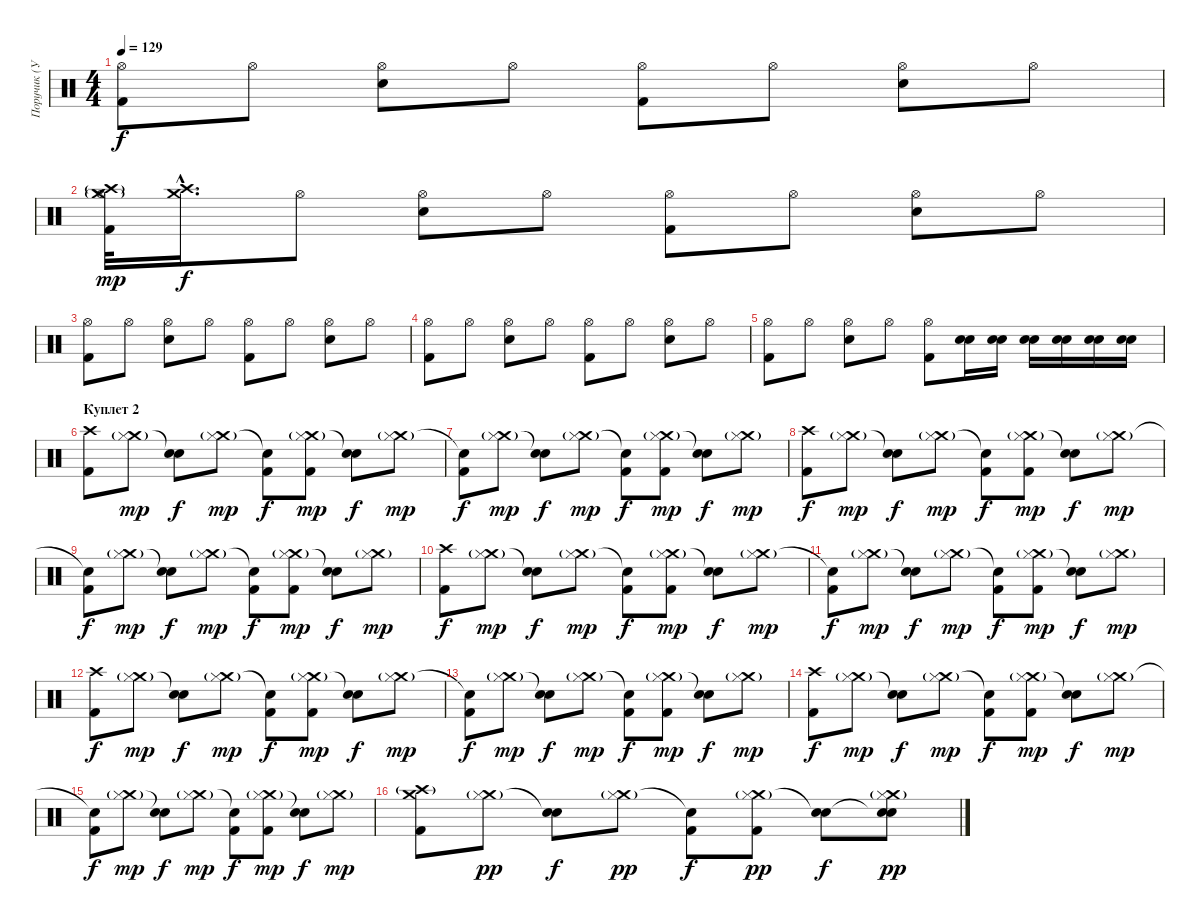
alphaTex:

\track ("Поручик (Ударные)" "Поручик (У") {instrument percussion}
\staff {score}
\articulation defaults
\ts (4 4)
\tempo 129
\clef neutral
\ks c
("Hi-Hat (open)" "Kick (hit) 2").8{dy f} "Hi-Hat (open)".8 ("Hi-Hat (open)" "Snare (hit) 2").8 "Hi-Hat (open)".8 ("Hi-Hat (open)" "Kick (hit) 2").8 "Hi-Hat (open)".8 ("Hi-Hat (open)" "Snare (hit) 2").8 "Hi-Hat (open)".8 |
("Hi-Hat (open)" "Kick (hit) 2" "Crash medium (hit)"{g} "Crash high (hit)"{g}).32{dy mp} ("Crash medium (hit)"{hac} "Crash high (hit)"{hac}).16{d dy f} "Hi-Hat (open)".8 ("Hi-Hat (open)" "Snare (hit) 2").8 "Hi-Hat (open)".8 ("Hi-Hat (open)" "Kick (hit) 2").8 "Hi-Hat (open)".8 ("Hi-Hat (open)" "Snare (hit) 2").8 "Hi-Hat (open)".8 |
("Hi-Hat (open)" "Kick (hit) 2").8 "Hi-Hat (open)".8 ("Hi-Hat (open)" "Snare (hit) 2").8 "Hi-Hat (open)".8 ("Hi-Hat (open)" "Kick (hit) 2").8 "Hi-Hat (open)".8 ("Hi-Hat (open)" "Snare (hit) 2").8 "Hi-Hat (open)".8 |
("Hi-Hat (open)" "Kick (hit) 2").8 "Hi-Hat (open)".8 ("Hi-Hat (open)" "Snare (hit) 2").8 "Hi-Hat (open)".8 ("Hi-Hat (open)" "Kick (hit) 2").8 "Hi-Hat (open)".8 ("Hi-Hat (open)" "Snare (hit) 2").8 "Hi-Hat (open)".8 |
("Hi-Hat (open)" "Kick (hit) 2").8 "Hi-Hat (open)".8 ("Hi-Hat (open)" "Snare (hit) 2").8 "Hi-Hat (open)".8 ("Hi-Hat (open)" "Kick (hit) 2").8 ("Electric Snare (hit)" "Snare (hit) 2").16 ("Electric Snare (hit)" "Snare (hit) 2").16 ("Electric Snare (hit)" "Snare (hit) 2").16 ("Electric Snare (hit)" "Snare (hit) 2").16 ("Electric Snare (hit)" "Snare (hit) 2").16 ("Electric Snare (hit)" "Snare (hit) 2").16 |
\section ("" "Куплет 2")
("Kick (hit) 2" "Crash high (hit)").8 ("Crash medium (hit)"{g} "Hi-Hat (closed)").8{dy mp} ("Snare (hit) 2" "Snare (hit)"{t}).8{dy f} ("Crash medium (hit)"{g} "Hi-Hat (closed)").8{dy mp} ("Kick (hit) 2" "Snare (hit)"{t}).8{dy f} ("Kick (hit) 2" "Crash medium (hit)"{g} "Hi-Hat (closed)").8{dy mp} ("Snare (hit) 2" "Snare (hit)"{t}).8{dy f} ("Crash medium (hit)"{g} "Hi-Hat (closed)").8{dy mp} |
("Kick (hit) 2" "Snare (hit)"{t}).8{dy f} ("Crash medium (hit)"{g} "Hi-Hat (closed)").8{dy mp} ("Snare (hit) 2" "Snare (hit)"{t}).8{dy f} ("Crash medium (hit)"{g} "Hi-Hat (closed)").8{dy mp} ("Kick (hit) 2" "Snare (hit)"{t}).8{dy f} ("Kick (hit) 2" "Crash medium (hit)"{g} "Hi-Hat (closed)").8{dy mp} ("Snare (hit) 2" "Snare (hit)"{t}).8{dy f} ("Crash medium (hit)"{g} "Hi-Hat (closed)").8{dy mp} |
("Kick (hit) 2" "Crash high (hit)").8{dy f} ("Crash medium (hit)"{g} "Hi-Hat (closed)").8{dy mp} ("Snare (hit) 2" "Snare (hit)"{t}).8{dy f} ("Crash medium (hit)"{g} "Hi-Hat (closed)").8{dy mp} ("Kick (hit) 2" "Snare (hit)"{t}).8{dy f} ("Kick (hit) 2" "Crash medium (hit)"{g} "Hi-Hat (closed)").8{dy mp} ("Snare (hit) 2" "Snare (hit)"{t}).8{dy f} ("Crash medium (hit)"{g} "Hi-Hat (closed)").8{dy mp} |
("Kick (hit) 2" "Snare (hit)"{t}).8{dy f} ("Crash medium (hit)"{g} "Hi-Hat (closed)").8{dy mp} ("Snare (hit) 2" "Snare (hit)"{t}).8{dy f} ("Crash medium (hit)"{g} "Hi-Hat (closed)").8{dy mp} ("Kick (hit) 2" "Snare (hit)"{t}).8{dy f} ("Kick (hit) 2" "Crash medium (hit)"{g} "Hi-Hat (closed)").8{dy mp} ("Snare (hit) 2" "Snare (hit)"{t}).8{dy f} ("Crash medium (hit)"{g} "Hi-Hat (closed)").8{dy mp} |
("Kick (hit) 2" "Crash high (hit)").8{dy f} ("Crash medium (hit)"{g} "Hi-Hat (closed)").8{dy mp} ("Snare (hit) 2" "Snare (hit)"{t}).8{dy f} ("Crash medium (hit)"{g} "Hi-Hat (closed)").8{dy mp} ("Kick (hit) 2" "Snare (hit)"{t}).8{dy f} ("Kick (hit) 2" "Crash medium (hit)"{g} "Hi-Hat (closed)").8{dy mp} ("Snare (hit) 2" "Snare (hit)"{t}).8{dy f} ("Crash medium (hit)"{g} "Hi-Hat (closed)").8{dy mp} |
("Kick (hit) 2" "Snare (hit)"{t}).8{dy f} ("Crash medium (hit)"{g} "Hi-Hat (closed)").8{dy mp} ("Snare (hit) 2" "Snare (hit)"{t}).8{dy f} ("Crash medium (hit)"{g} "Hi-Hat (closed)").8{dy mp} ("Kick (hit) 2" "Snare (hit)"{t}).8{dy f} ("Kick (hit) 2" "Crash medium (hit)"{g} "Hi-Hat (closed)").8{dy mp} ("Snare (hit) 2" "Snare (hit)"{t}).8{dy f} ("Crash medium (hit)"{g} "Hi-Hat (closed)").8{dy mp} |
("Kick (hit) 2" "Crash high (hit)").8{dy f} ("Crash medium (hit)"{g} "Hi-Hat (closed)").8{dy mp} ("Snare (hit) 2" "Snare (hit)"{t}).8{dy f} ("Crash medium (hit)"{g} "Hi-Hat (closed)").8{dy mp} ("Kick (hit) 2" "Snare (hit)"{t}).8{dy f} ("Kick (hit) 2" "Crash medium (hit)"{g} "Hi-Hat (closed)").8{dy mp} ("Snare (hit) 2" "Snare (hit)"{t}).8{dy f} ("Crash medium (hit)"{g} "Hi-Hat (closed)").8{dy mp} |
("Kick (hit) 2" "Snare (hit)"{t}).8{dy f} ("Crash medium (hit)"{g} "Hi-Hat (closed)").8{dy mp} ("Snare (hit) 2" "Snare (hit)"{t}).8{dy f} ("Crash medium (hit)"{g} "Hi-Hat (closed)").8{dy mp} ("Kick (hit) 2" "Snare (hit)"{t}).8{dy f} ("Kick (hit) 2" "Crash medium (hit)"{g} "Hi-Hat (closed)").8{dy mp} ("Snare (hit) 2" "Snare (hit)"{t}).8{dy f} ("Crash medium (hit)"{g} "Hi-Hat (closed)").8{dy mp} |
("Kick (hit) 2" "Crash high (hit)").8{dy f} ("Crash medium (hit)"{g} "Hi-Hat (closed)").8{dy mp} ("Snare (hit) 2" "Snare (hit)"{t}).8{dy f} ("Crash medium (hit)"{g} "Hi-Hat (closed)").8{dy mp} ("Kick (hit) 2" "Snare (hit)"{t}).8{dy f} ("Kick (hit) 2" "Crash medium (hit)"{g} "Hi-Hat (closed)").8{dy mp} ("Snare (hit) 2" "Snare (hit)"{t}).8{dy f} ("Crash medium (hit)"{g} "Hi-Hat (closed)").8{dy mp} |
("Kick (hit) 2" "Snare (hit)"{t}).8{dy f} ("Crash medium (hit)"{g} "Hi-Hat (closed)").8{dy mp} ("Snare (hit) 2" "Snare (hit)"{t}).8{dy f} ("Crash medium (hit)"{g} "Hi-Hat (closed)").8{dy mp} ("Kick (hit) 2" "Snare (hit)"{t}).8{dy f} ("Kick (hit) 2" "Crash medium (hit)"{g} "Hi-Hat (closed)").8{dy mp} ("Snare (hit) 2" "Snare (hit)"{t}).8{dy f} ("Crash medium (hit)"{g} "Hi-Hat (closed)").8{dy mp} |
("Kick (hit) 2" "Crash medium (hit)" "Crash high (hit)"{g}).8 ("Crash medium (hit)"{g} "Hi-Hat (closed)").8{dy pp} ("Snare (hit) 2" "Snare (hit)"{t}).8{dy f} ("Crash medium (hit)"{g} "Hi-Hat (closed)").8{dy pp} ("Kick (hit) 2" "Snare (hit)"{t}).8{dy f} ("Kick (hit) 2" "Crash medium (hit)"{g} "Hi-Hat (closed)").8{dy pp} ("Snare (hit) 2" "Snare (hit)"{t}).8{dy f} ("Crash medium (hit)"{g} "Snare (hit)"{t} "Hi-Hat (closed)" "Snare (hit)").8{dy pp}
